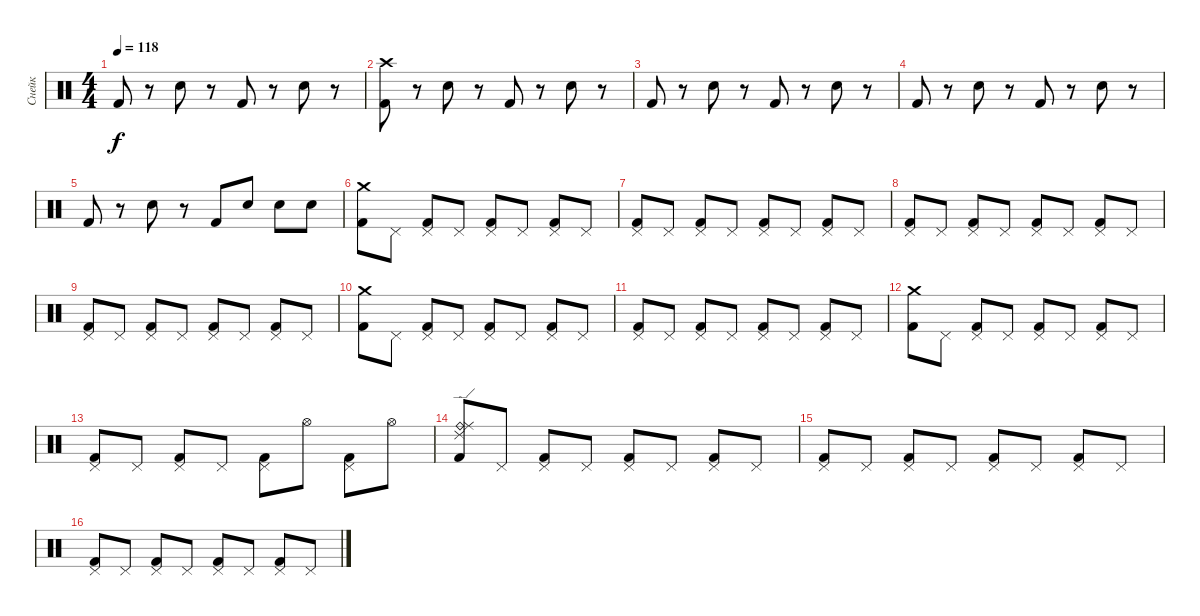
\track ("Снейк" "Снейк") {instrument percussion}
\staff {score}
\articulation defaults
\ts (4 4)
\tempo 118
\clef neutral
\ks c "Kick (hit) 2".8{dy f}
r.8 "Electric Snare (hit)".8 r.8 "Kick (hit) 2".8 r.8 "Electric Snare (hit)".8 r.8 |
("Crash high (hit)" "Kick (hit) 2").8 r.8 "Electric Snare (hit)".8 r.8 "Kick (hit) 2".8 r.8 "Electric Snare (hit)".8 r.8 |
"Kick (hit) 2".8 r.8 "Electric Snare (hit)".8 r.8 "Kick (hit) 2".8 r.8 "Electric Snare (hit)".8 r.8 |
"Kick (hit) 2".8 r.8 "Electric Snare (hit)".8 r.8 "Kick (hit) 2".8 r.8 "Electric Snare (hit)".8 r.8 |
"Kick (hit) 2".8 r.8 "Electric Snare (hit)".8 r.8 "Kick (hit) 2".8 "Electric Snare (hit)".8 "Electric Snare (hit)".8 "Electric Snare (hit)".8 |
("Crash medium (hit)" "Kick (hit) 2").8 "Pedal Hi-Hat (hit)".8 ("Pedal Hi-Hat (hit)" "Kick (hit) 2").8 "Pedal Hi-Hat (hit)".8 ("Pedal Hi-Hat (hit)" "Kick (hit) 2").8 "Pedal Hi-Hat (hit)".8 ("Pedal Hi-Hat (hit)" "Kick (hit) 2").8 "Pedal Hi-Hat (hit)".8 |
("Pedal Hi-Hat (hit)" "Kick (hit) 2").8 "Pedal Hi-Hat (hit)".8 ("Pedal Hi-Hat (hit)" "Kick (hit) 2").8 "Pedal Hi-Hat (hit)".8 ("Pedal Hi-Hat (hit)" "Kick (hit) 2").8 "Pedal Hi-Hat (hit)".8 ("Pedal Hi-Hat (hit)" "Kick (hit) 2").8 "Pedal Hi-Hat (hit)".8 |
("Pedal Hi-Hat (hit)" "Kick (hit) 2").8 "Pedal Hi-Hat (hit)".8 ("Pedal Hi-Hat (hit)" "Kick (hit) 2").8 "Pedal Hi-Hat (hit)".8 ("Pedal Hi-Hat (hit)" "Kick (hit) 2").8 "Pedal Hi-Hat (hit)".8 ("Pedal Hi-Hat (hit)" "Kick (hit) 2").8 "Pedal Hi-Hat (hit)".8 |
("Pedal Hi-Hat (hit)" "Kick (hit) 2").8 "Pedal Hi-Hat (hit)".8 ("Pedal Hi-Hat (hit)" "Kick (hit) 2").8 "Pedal Hi-Hat (hit)".8 ("Pedal Hi-Hat (hit)" "Kick (hit) 2").8 "Pedal Hi-Hat (hit)".8 ("Pedal Hi-Hat (hit)" "Kick (hit) 2").8 "Pedal Hi-Hat (hit)".8 |
("Crash medium (hit)" "Kick (hit) 2").8 "Pedal Hi-Hat (hit)".8 ("Pedal Hi-Hat (hit)" "Kick (hit) 2").8 "Pedal Hi-Hat (hit)".8 ("Pedal Hi-Hat (hit)" "Kick (hit) 2").8 "Pedal Hi-Hat (hit)".8 ("Pedal Hi-Hat (hit)" "Kick (hit) 2").8 "Pedal Hi-Hat (hit)".8 |
("Pedal Hi-Hat (hit)" "Kick (hit) 2").8 "Pedal Hi-Hat (hit)".8 ("Pedal Hi-Hat (hit)" "Kick (hit) 2").8 "Pedal Hi-Hat (hit)".8 ("Pedal Hi-Hat (hit)" "Kick (hit) 2").8 "Pedal Hi-Hat (hit)".8 ("Pedal Hi-Hat (hit)" "Kick (hit) 2").8 "Pedal Hi-Hat (hit)".8 |
("Crash medium (hit)" "Kick (hit) 2").8 "Pedal Hi-Hat (hit)".8 ("Pedal Hi-Hat (hit)" "Kick (hit) 2").8 "Pedal Hi-Hat (hit)".8 ("Pedal Hi-Hat (hit)" "Kick (hit) 2").8 "Pedal Hi-Hat (hit)".8 ("Pedal Hi-Hat (hit)" "Kick (hit) 2").8 "Pedal Hi-Hat (hit)".8 |
("Pedal Hi-Hat (hit)" "Kick (hit) 2").8 "Pedal Hi-Hat (hit)".8 ("Pedal Hi-Hat (hit)" "Kick (hit) 2").8 "Pedal Hi-Hat (hit)".8 ("Pedal Hi-Hat (hit)" "Kick (hit) 2").8 "Hi-Hat (open)".8 ("Pedal Hi-Hat (hit)" "Kick (hit) 2").8 "Hi-Hat (open)".8 |
("Ride (bell)" "Ride (middle)" "Ride (edge) 2" "Kick (hit) 2").8 "Pedal Hi-Hat (hit)".8 ("Pedal Hi-Hat (hit)" "Kick (hit) 2").8 "Pedal Hi-Hat (hit)".8 ("Pedal Hi-Hat (hit)" "Kick (hit) 2").8 "Pedal Hi-Hat (hit)".8 ("Pedal Hi-Hat (hit)" "Kick (hit) 2").8 "Pedal Hi-Hat (hit)".8 |
("Pedal Hi-Hat (hit)" "Kick (hit) 2").8 "Pedal Hi-Hat (hit)".8 ("Pedal Hi-Hat (hit)" "Kick (hit) 2").8 "Pedal Hi-Hat (hit)".8 ("Pedal Hi-Hat (hit)" "Kick (hit) 2").8 "Pedal Hi-Hat (hit)".8 ("Pedal Hi-Hat (hit)" "Kick (hit) 2").8 "Pedal Hi-Hat (hit)".8 |
("Pedal Hi-Hat (hit)" "Kick (hit) 2").8 "Pedal Hi-Hat (hit)".8 ("Pedal Hi-Hat (hit)" "Kick (hit) 2").8 "Pedal Hi-Hat (hit)".8 ("Pedal Hi-Hat (hit)" "Kick (hit) 2").8 "Pedal Hi-Hat (hit)".8 ("Pedal Hi-Hat (hit)" "Kick (hit) 2").8 "Pedal Hi-Hat (hit)".8
